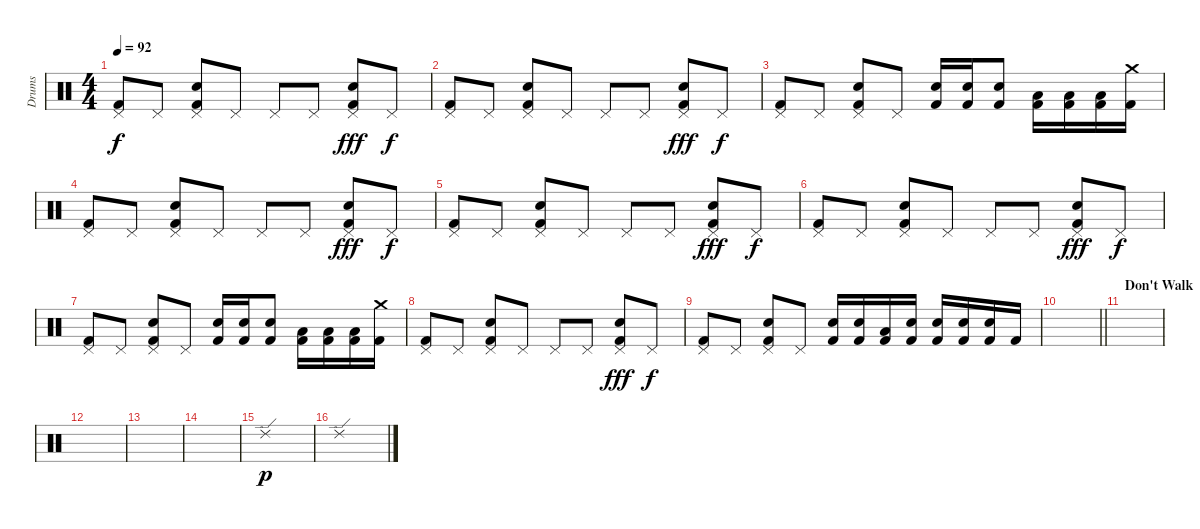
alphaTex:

\track ("Drums" "Drums") {instrument percussion}
\staff {score}
\articulation defaults
\ts (4 4)
\tempo 92
\clef neutral
\ks c
("Pedal Hi-Hat (hit)" "Kick (hit) 2").8{dy f} "Pedal Hi-Hat (hit)".8 ("Pedal Hi-Hat (hit)" "Kick (hit) 2" "Snare (hit) 2").8 "Pedal Hi-Hat (hit)".8 "Pedal Hi-Hat (hit)".8 "Pedal Hi-Hat (hit)".8 ("Pedal Hi-Hat (hit)" "Snare (hit) 2" "Kick (hit) 2").8{dy fff} "Pedal Hi-Hat (hit)".8{dy f} |
("Pedal Hi-Hat (hit)" "Kick (hit) 2").8 "Pedal Hi-Hat (hit)".8 ("Pedal Hi-Hat (hit)" "Kick (hit) 2" "Snare (hit) 2").8 "Pedal Hi-Hat (hit)".8 "Pedal Hi-Hat (hit)".8 "Pedal Hi-Hat (hit)".8 ("Pedal Hi-Hat (hit)" "Snare (hit) 2" "Kick (hit) 2").8{dy fff} "Pedal Hi-Hat (hit)".8{dy f} |
("Pedal Hi-Hat (hit)" "Kick (hit) 2").8 "Pedal Hi-Hat (hit)".8 ("Pedal Hi-Hat (hit)" "Kick (hit) 2" "Snare (hit) 2").8 "Pedal Hi-Hat (hit)".8 ("Snare (hit) 2" "Kick (hit) 2").16 ("Snare (hit) 2" "Kick (hit) 2").16 ("Snare (hit) 2" "Kick (hit) 2").8 ("Low Floor Tom (hit)" "Kick (hit) 2").16 ("Low Floor Tom (hit)" "Kick (hit) 2").16 ("Low Floor Tom (hit)" "Kick (hit) 2").16 ("Crash medium (hit)" "Kick (hit) 2").16 |
("Pedal Hi-Hat (hit)" "Kick (hit) 2").8 "Pedal Hi-Hat (hit)".8 ("Pedal Hi-Hat (hit)" "Snare (hit) 2" "Kick (hit) 2").8 "Pedal Hi-Hat (hit)".8 "Pedal Hi-Hat (hit)".8 "Pedal Hi-Hat (hit)".8 ("Pedal Hi-Hat (hit)" "Snare (hit) 2" "Kick (hit) 2").8{dy fff} "Pedal Hi-Hat (hit)".8{dy f} |
("Pedal Hi-Hat (hit)" "Kick (hit) 2").8 "Pedal Hi-Hat (hit)".8 ("Pedal Hi-Hat (hit)" "Kick (hit) 2" "Snare (hit) 2").8 "Pedal Hi-Hat (hit)".8 "Pedal Hi-Hat (hit)".8 "Pedal Hi-Hat (hit)".8 ("Pedal Hi-Hat (hit)" "Snare (hit) 2" "Kick (hit) 2").8{dy fff} "Pedal Hi-Hat (hit)".8{dy f} |
("Pedal Hi-Hat (hit)" "Kick (hit) 2").8 "Pedal Hi-Hat (hit)".8 ("Pedal Hi-Hat (hit)" "Kick (hit) 2" "Snare (hit) 2").8 "Pedal Hi-Hat (hit)".8 "Pedal Hi-Hat (hit)".8 "Pedal Hi-Hat (hit)".8 ("Pedal Hi-Hat (hit)" "Snare (hit) 2" "Kick (hit) 2").8{dy fff} "Pedal Hi-Hat (hit)".8{dy f} |
("Pedal Hi-Hat (hit)" "Kick (hit) 2").8 "Pedal Hi-Hat (hit)".8 ("Pedal Hi-Hat (hit)" "Kick (hit) 2" "Snare (hit) 2").8 "Pedal Hi-Hat (hit)".8 ("Snare (hit) 2" "Kick (hit) 2").16 ("Snare (hit) 2" "Kick (hit) 2").16 ("Snare (hit) 2" "Kick (hit) 2").8 ("Low Floor Tom (hit)" "Kick (hit) 2").16 ("Low Floor Tom (hit)" "Kick (hit) 2").16 ("Low Floor Tom (hit)" "Kick (hit) 2").16 ("Crash medium (hit)" "Kick (hit) 2").16 |
("Pedal Hi-Hat (hit)" "Kick (hit) 2").8 "Pedal Hi-Hat (hit)".8 ("Pedal Hi-Hat (hit)" "Kick (hit) 2" "Snare (hit) 2").8 "Pedal Hi-Hat (hit)".8 "Pedal Hi-Hat (hit)".8 "Pedal Hi-Hat (hit)".8 ("Pedal Hi-Hat (hit)" "Snare (hit) 2" "Kick (hit) 2").8{dy fff} "Pedal Hi-Hat (hit)".8{dy f} |
("Pedal Hi-Hat (hit)" "Kick (hit) 2").8 "Pedal Hi-Hat (hit)".8 ("Pedal Hi-Hat (hit)" "Kick (hit) 2" "Snare (hit) 2").8 "Pedal Hi-Hat (hit)".8 ("Snare (hit) 2" "Kick (hit) 2").16 ("Snare (hit) 2" "Kick (hit) 2").16 ("Low Floor Tom (hit)" "Kick (hit) 2").16 ("Snare (hit) 2" "Kick (hit) 2").16 ("Snare (hit) 2" "Kick (hit) 2").16 ("Snare (hit) 2" "Kick (hit) 2").16 ("Snare (hit) 2" "Kick (hit) 2").16 "Kick (hit) 2".16 |
\barLineRight lightlight
|
\section ("" "Don't Walk")
|
|
|
|
"Ride (edge) 2".1{dy p} |
"Ride (edge) 2".1
